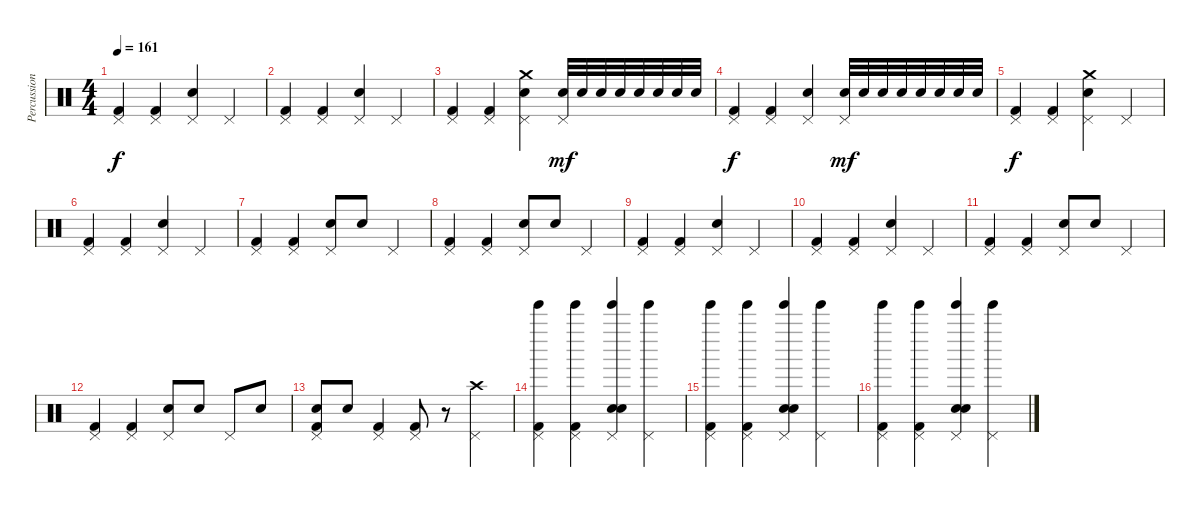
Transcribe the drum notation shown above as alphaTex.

\track ("Percussion" "Percussion") {instrument percussion}
\staff {score}
\articulation defaults
\ts (4 4)
\tempo 161
\clef neutral
\ks c
("Pedal Hi-Hat (hit)" "Kick (hit) 2").4{dy f} ("Pedal Hi-Hat (hit)" "Kick (hit) 2").4 ("Pedal Hi-Hat (hit)" "Electric Snare (hit)").4 "Pedal Hi-Hat (hit)".4 |
("Pedal Hi-Hat (hit)" "Kick (hit) 2").4 ("Pedal Hi-Hat (hit)" "Kick (hit) 2").4 ("Pedal Hi-Hat (hit)" "Electric Snare (hit)").4 "Pedal Hi-Hat (hit)".4 |
("Pedal Hi-Hat (hit)" "Kick (hit) 2").4 ("Pedal Hi-Hat (hit)" "Kick (hit) 2").4 ("Pedal Hi-Hat (hit)" "Crash medium (hit)" "Electric Snare (hit)").4 ("Pedal Hi-Hat (hit)" "Electric Snare (hit)").32{dy mf} "Electric Snare (hit)".32 "Electric Snare (hit)".32 "Electric Snare (hit)".32 "Electric Snare (hit)".32 "Electric Snare (hit)".32 "Electric Snare (hit)".32 "Electric Snare (hit)".32 |
("Pedal Hi-Hat (hit)" "Kick (hit) 2").4{dy f} ("Pedal Hi-Hat (hit)" "Kick (hit) 2").4 ("Pedal Hi-Hat (hit)" "Electric Snare (hit)").4 ("Pedal Hi-Hat (hit)" "Electric Snare (hit)").32{dy mf} "Electric Snare (hit)".32 "Electric Snare (hit)".32 "Electric Snare (hit)".32 "Electric Snare (hit)".32 "Electric Snare (hit)".32 "Electric Snare (hit)".32 "Electric Snare (hit)".32 |
("Pedal Hi-Hat (hit)" "Kick (hit) 2").4{dy f} ("Pedal Hi-Hat (hit)" "Kick (hit) 2").4 ("Pedal Hi-Hat (hit)" "Crash medium (hit)" "Electric Snare (hit)").4 "Pedal Hi-Hat (hit)".4 |
("Pedal Hi-Hat (hit)" "Kick (hit) 2").4 ("Pedal Hi-Hat (hit)" "Kick (hit) 2").4 ("Pedal Hi-Hat (hit)" "Electric Snare (hit)").4 "Pedal Hi-Hat (hit)".4 |
("Pedal Hi-Hat (hit)" "Kick (hit) 2").4 ("Pedal Hi-Hat (hit)" "Kick (hit) 2").4 ("Pedal Hi-Hat (hit)" "Electric Snare (hit)").8 "Electric Snare (hit)".8 "Pedal Hi-Hat (hit)".4 |
("Pedal Hi-Hat (hit)" "Kick (hit) 2").4 ("Pedal Hi-Hat (hit)" "Kick (hit) 2").4 ("Pedal Hi-Hat (hit)" "Electric Snare (hit)").8 "Electric Snare (hit)".8 "Pedal Hi-Hat (hit)".4 |
("Pedal Hi-Hat (hit)" "Kick (hit) 2").4 ("Pedal Hi-Hat (hit)" "Kick (hit) 2").4 ("Pedal Hi-Hat (hit)" "Electric Snare (hit)").4 "Pedal Hi-Hat (hit)".4 |
("Pedal Hi-Hat (hit)" "Kick (hit) 2").4 ("Pedal Hi-Hat (hit)" "Kick (hit) 2").4 ("Pedal Hi-Hat (hit)" "Electric Snare (hit)").4 "Pedal Hi-Hat (hit)".4 |
("Pedal Hi-Hat (hit)" "Kick (hit) 2").4 ("Pedal Hi-Hat (hit)" "Kick (hit) 2").4 ("Pedal Hi-Hat (hit)" "Electric Snare (hit)").8 "Electric Snare (hit)".8 "Pedal Hi-Hat (hit)".4 |
("Pedal Hi-Hat (hit)" "Kick (hit) 2").4 ("Pedal Hi-Hat (hit)" "Kick (hit) 2").4 ("Pedal Hi-Hat (hit)" "Electric Snare (hit)").8 "Electric Snare (hit)".8 "Pedal Hi-Hat (hit)".8 "Electric Snare (hit)".8 |
("Pedal Hi-Hat (hit)" "Electric Snare (hit)" "Kick (hit) 2").8 "Electric Snare (hit)".8 ("Pedal Hi-Hat (hit)" "Kick (hit) 2").4 ("Pedal Hi-Hat (hit)" "Kick (hit) 2").8 r.8 ("Pedal Hi-Hat (hit)" "Crash high (hit)").4 |
("Tinkle Bell (hit)" "Pedal Hi-Hat (hit)" "Kick (hit) 2").4 ("Tinkle Bell (hit)" "Pedal Hi-Hat (hit)" "Kick (hit) 2").4 ("Tinkle Bell (hit)" "Pedal Hi-Hat (hit)" "Electric Snare (hit)" "Hand Clap (hit)").4 ("Tinkle Bell (hit)" "Pedal Hi-Hat (hit)").4 |
("Tinkle Bell (hit)" "Pedal Hi-Hat (hit)" "Kick (hit) 2").4 ("Tinkle Bell (hit)" "Pedal Hi-Hat (hit)" "Kick (hit) 2").4 ("Tinkle Bell (hit)" "Pedal Hi-Hat (hit)" "Electric Snare (hit)" "Hand Clap (hit)").4 ("Tinkle Bell (hit)" "Pedal Hi-Hat (hit)").4 |
("Tinkle Bell (hit)" "Pedal Hi-Hat (hit)" "Kick (hit) 2").4 ("Tinkle Bell (hit)" "Pedal Hi-Hat (hit)" "Kick (hit) 2").4 ("Tinkle Bell (hit)" "Pedal Hi-Hat (hit)" "Electric Snare (hit)" "Hand Clap (hit)").4 ("Tinkle Bell (hit)" "Pedal Hi-Hat (hit)").4
